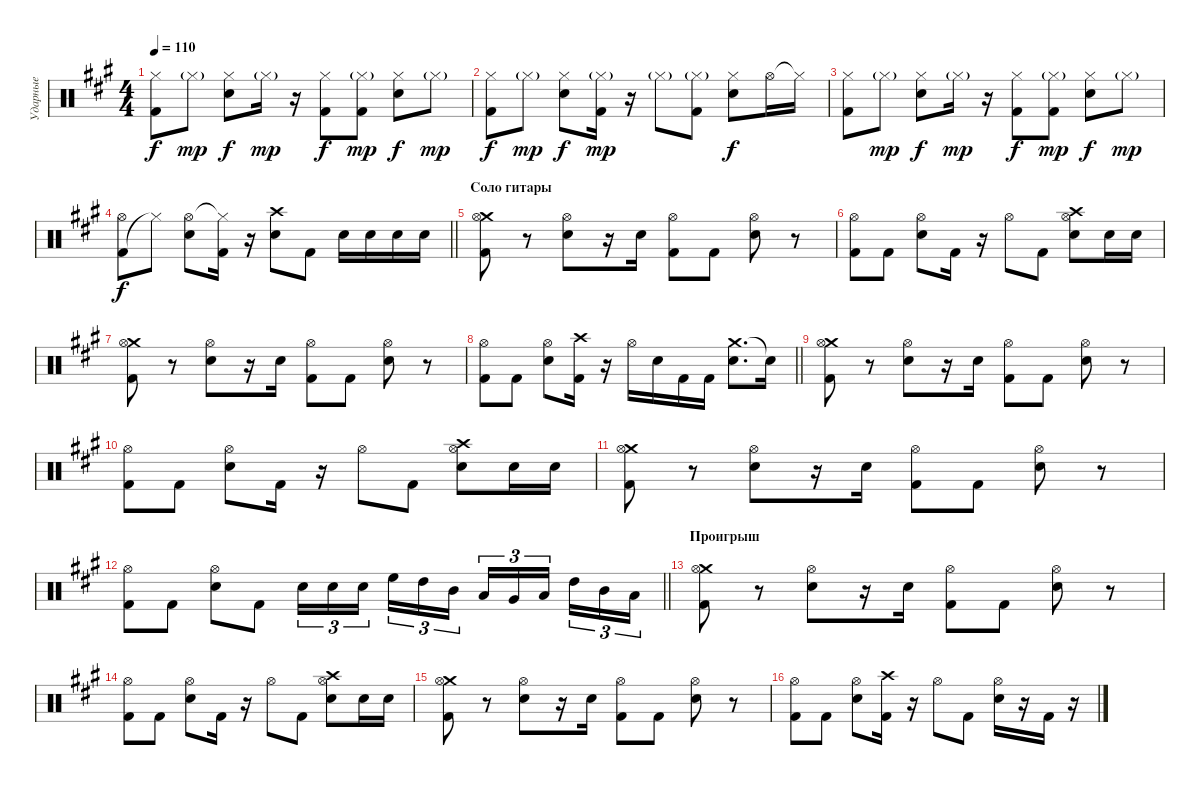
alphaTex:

\track ("Ударные" "Ударные") {instrument percussion}
\staff {score}
\articulation defaults
\ts (4 4)
\tempo 110
\clef neutral
\ks f#minor
("Kick (hit) 2" "Hi-Hat (closed)").8{dy f} "Hi-Hat (closed)"{g}.8{dy mp} ("Electric Snare (hit)" "Hi-Hat (closed)").8{dy f} "Hi-Hat (closed)"{g}.16{dy mp} r.16 ("Kick (hit) 2" "Hi-Hat (closed)").8{dy f} ("Kick (hit) 2" "Hi-Hat (closed)"{g}).8{dy mp} ("Electric Snare (hit)" "Hi-Hat (closed)").8{dy f} "Hi-Hat (closed)"{g}.8{dy mp} |
("Kick (hit) 2" "Hi-Hat (closed)").8{dy f} "Hi-Hat (closed)"{g}.8{dy mp} ("Electric Snare (hit)" "Hi-Hat (closed)").8{dy f} ("Kick (hit) 2" "Hi-Hat (closed)"{g}).16{dy mp} r.16 "Hi-Hat (closed)"{g}.8 ("Kick (hit) 2" "Hi-Hat (closed)"{g}).8 ("Electric Snare (hit)" "Hi-Hat (closed)").8{dy f} "Hi-Hat (open)".16 "Hi-Hat (closed)"{t}.16 |
("Kick (hit) 2" "Hi-Hat (closed)").8 "Hi-Hat (closed)"{g}.8{dy mp} ("Electric Snare (hit)" "Hi-Hat (closed)").8{dy f} "Hi-Hat (closed)"{g}.16{dy mp} r.16 ("Kick (hit) 2" "Hi-Hat (closed)").8{dy f} ("Kick (hit) 2" "Hi-Hat (closed)"{g}).8{dy mp} ("Electric Snare (hit)" "Hi-Hat (closed)").8{dy f} "Hi-Hat (closed)"{g}.8{dy mp} |
\barLineRight lightlight
("Kick (hit) 2" "Hi-Hat (open)").8{dy f} "Hi-Hat (closed)"{t}.8 ("Electric Snare (hit)" "Hi-Hat (open)").8 ("Kick (hit) 2" "Hi-Hat (closed)"{t}).16 r.16 ("Electric Snare (hit)" "Crash high (hit)").8 "Kick (hit) 2".8 "Electric Snare (hit)".16 "Electric Snare (hit)".16 "Electric Snare (hit)".16 "Electric Snare (hit)".16 |
\section ("" "Соло гитары")
("Crash medium (hit)" "Kick (hit) 2" "Hi-Hat (open)").8 r.8 ("Electric Snare (hit)" "Hi-Hat (open)").8 r.16 "Electric Snare (hit)".16 ("Kick (hit) 2" "Hi-Hat (open)").8 "Kick (hit) 2".8 ("Electric Snare (hit)" "Hi-Hat (open)").8 r.8 |
("Kick (hit) 2" "Hi-Hat (open)").8 "Kick (hit) 2".8 ("Electric Snare (hit)" "Hi-Hat (open)").8 "Kick (hit) 2".16 r.16 "Hi-Hat (open)".8 "Kick (hit) 2".8 ("Crash high (hit)" "Electric Snare (hit)" "Hi-Hat (open)").8 "Electric Snare (hit)".16 "Electric Snare (hit)".16 |
("Crash medium (hit)" "Kick (hit) 2" "Hi-Hat (open)").8 r.8 ("Electric Snare (hit)" "Hi-Hat (open)").8 r.16 "Electric Snare (hit)".16 ("Kick (hit) 2" "Hi-Hat (open)").8 "Kick (hit) 2".8 ("Electric Snare (hit)" "Hi-Hat (open)").8 r.8 |
\barLineRight lightlight
("Kick (hit) 2" "Hi-Hat (open)").8 "Kick (hit) 2".8 ("Electric Snare (hit)" "Hi-Hat (open)").8 ("Crash high (hit)" "Kick (hit) 2").16 r.16 "Hi-Hat (open)".16 "Electric Snare (hit)".16 "Kick (hit) 2".16 "Kick (hit) 2".16 ("Crash medium (hit)" "Electric Snare (hit)").8{d} "Electric Snare (hit)"{t}.16 |
("Crash medium (hit)" "Kick (hit) 2" "Hi-Hat (open)").8 r.8 ("Electric Snare (hit)" "Hi-Hat (open)").8 r.16 "Electric Snare (hit)".16 ("Kick (hit) 2" "Hi-Hat (open)").8 "Kick (hit) 2".8 ("Electric Snare (hit)" "Hi-Hat (open)").8 r.8 |
("Kick (hit) 2" "Hi-Hat (open)").8 "Kick (hit) 2".8 ("Electric Snare (hit)" "Hi-Hat (open)").8 "Kick (hit) 2".16 r.16 "Hi-Hat (open)".8 "Kick (hit) 2".8 ("Crash high (hit)" "Electric Snare (hit)" "Hi-Hat (open)").8 "Electric Snare (hit)".16 "Electric Snare (hit)".16 |
("Crash medium (hit)" "Kick (hit) 2" "Hi-Hat (open)").8 r.8 ("Electric Snare (hit)" "Hi-Hat (open)").8 r.16 "Electric Snare (hit)".16 ("Kick (hit) 2" "Hi-Hat (open)").8 "Kick (hit) 2".8 ("Electric Snare (hit)" "Hi-Hat (open)").8 r.8 |
\barLineRight lightlight
("Kick (hit) 2" "Hi-Hat (open)").8 "Kick (hit) 2".8 ("Electric Snare (hit)" "Hi-Hat (open)").8 "Kick (hit) 2".8 "Electric Snare (hit)".16{tu (3 2)} "Electric Snare (hit)".16{tu (3 2)} "Electric Snare (hit)".16{tu (3 2) beam splitsecondary} "High Floor Tom (hit)".16{tu (3 2)} "High Tom (hit)".16{tu (3 2)} "Mid Tom (hit)".16{tu (3 2)} "Low Tom (hit)".16{tu (3 2)} "Very Low Tom (hit)".16{tu (3 2)} "Low Floor Tom (hit)".16{tu (3 2) beam splitsecondary} "High Tom (hit)".16{tu (3 2)} "Mid Tom (hit)".16{tu (3 2)} "Low Tom (hit)".16{tu (3 2)} |
\section ("" "Проигрыш")
("Crash medium (hit)" "Kick (hit) 2" "Hi-Hat (open)").8 r.8 ("Electric Snare (hit)" "Hi-Hat (open)").8 r.16 "Electric Snare (hit)".16 ("Kick (hit) 2" "Hi-Hat (open)").8 "Kick (hit) 2".8 ("Electric Snare (hit)" "Hi-Hat (open)").8 r.8 |
("Kick (hit) 2" "Hi-Hat (open)").8 "Kick (hit) 2".8 ("Electric Snare (hit)" "Hi-Hat (open)").8 "Kick (hit) 2".16 r.16 "Hi-Hat (open)".8 "Kick (hit) 2".8 ("Crash high (hit)" "Electric Snare (hit)" "Hi-Hat (open)").8 "Electric Snare (hit)".16 "Electric Snare (hit)".16 |
("Crash medium (hit)" "Kick (hit) 2" "Hi-Hat (open)").8 r.8 ("Electric Snare (hit)" "Hi-Hat (open)").8 r.16 "Electric Snare (hit)".16 ("Kick (hit) 2" "Hi-Hat (open)").8 "Kick (hit) 2".8 ("Electric Snare (hit)" "Hi-Hat (open)").8 r.8 |
("Kick (hit) 2" "Hi-Hat (open)").8 "Kick (hit) 2".8 ("Electric Snare (hit)" "Hi-Hat (open)").8 ("Crash high (hit)" "Kick (hit) 2").16 r.16 "Hi-Hat (open)".8 "Kick (hit) 2".8 ("Electric Snare (hit)" "Hi-Hat (open)").16 r.16 "Kick (hit) 2".16 r.16
